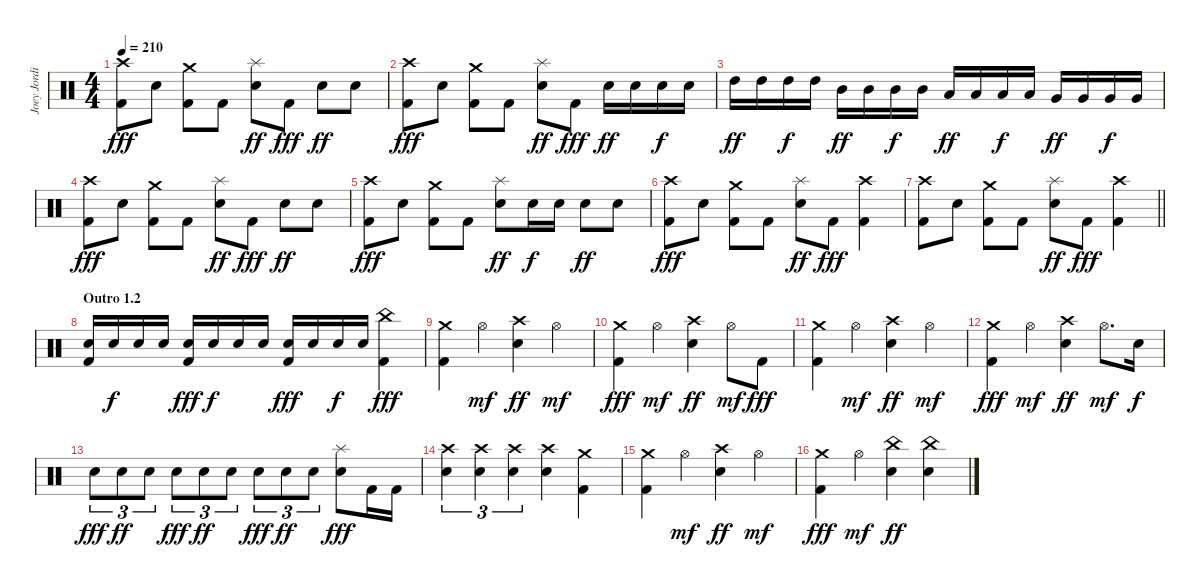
\track ("Joey Jordison" "Joey Jordi") {instrument percussion}
\staff {score}
\articulation defaults
\ts (4 4)
\tempo 210
\clef neutral
\ks c
("Crash high (hit)" "Kick (hit) 2").8{dy fff} "Electric Snare (hit)".8 ("Crash medium (hit)" "Kick (hit) 2").8 "Kick (hit) 2".8 ("Splash (hit)" "Electric Snare (hit)").8{dy ff} "Kick (hit) 2".8{dy fff} "Electric Snare (hit)".8{dy ff} "Electric Snare (hit)".8 |
("Crash high (hit)" "Kick (hit) 2").8{dy fff} "Electric Snare (hit)".8 ("Crash medium (hit)" "Kick (hit) 2").8 "Kick (hit) 2".8 ("Splash (hit)" "Electric Snare (hit)").8{dy ff} "Kick (hit) 2".8{dy fff} "Electric Snare (hit)".16{dy ff} "Electric Snare (hit)".16 "Electric Snare (hit)".16{dy f} "Electric Snare (hit)".16 |
"High Tom (hit)".16{dy ff} "High Tom (hit)".16 "High Tom (hit)".16{dy f} "High Tom (hit)".16 "Mid Tom (hit)".16{dy ff} "Mid Tom (hit)".16 "Mid Tom (hit)".16{dy f} "Mid Tom (hit)".16 "Low Tom (hit)".16{dy ff} "Low Tom (hit)".16 "Low Tom (hit)".16{dy f} "Low Tom (hit)".16 "Very Low Tom (hit)".16{dy ff} "Very Low Tom (hit)".16 "Very Low Tom (hit)".16{dy f} "Very Low Tom (hit)".16 |
("Crash high (hit)" "Kick (hit) 2").8{dy fff} "Electric Snare (hit)".8 ("Crash medium (hit)" "Kick (hit) 2").8 "Kick (hit) 2".8 ("Splash (hit)" "Electric Snare (hit)").8{dy ff} "Kick (hit) 2".8{dy fff} "Electric Snare (hit)".8{dy ff} "Electric Snare (hit)".8 |
("Crash high (hit)" "Kick (hit) 2").8{dy fff} "Electric Snare (hit)".8 ("Crash medium (hit)" "Kick (hit) 2").8 "Kick (hit) 2".8 ("Splash (hit)" "Electric Snare (hit)").8{dy ff} "Electric Snare (hit)".16{dy f} "Electric Snare (hit)".16 "Electric Snare (hit)".8{dy ff} "Electric Snare (hit)".8 |
("Crash high (hit)" "Kick (hit) 2").8{dy fff} "Electric Snare (hit)".8 ("Crash medium (hit)" "Kick (hit) 2").8 "Kick (hit) 2".8 ("Splash (hit)" "Electric Snare (hit)").8{dy ff} "Kick (hit) 2".8{dy fff} ("Crash high (hit)" "Kick (hit) 2").4 |
\barLineRight lightlight
("Crash high (hit)" "Kick (hit) 2").8 "Electric Snare (hit)".8 ("Crash medium (hit)" "Kick (hit) 2").8 "Kick (hit) 2".8 ("Splash (hit)" "Electric Snare (hit)").8{dy ff} "Kick (hit) 2".8{dy fff} ("Crash high (hit)" "Kick (hit) 2").4 |
\section ("" "Outro 1.2")
("Electric Snare (hit)" "Kick (hit) 2").16 "Electric Snare (hit)".16{dy f} "Electric Snare (hit)".16 "Electric Snare (hit)".16 ("Electric Snare (hit)" "Kick (hit) 2").16{dy fff} "Electric Snare (hit)".16{dy f} "Electric Snare (hit)".16 "Electric Snare (hit)".16 ("Electric Snare (hit)" "Kick (hit) 2").16{dy fff} "Electric Snare (hit)".16 "Electric Snare (hit)".16{dy f} "Electric Snare (hit)".16 ("China (hit)" "Kick (hit) 2").4{dy fff} |
("Crash medium (hit)" "Kick (hit) 2").4 "Hi-Hat (open)".4{dy mf} ("Crash high (hit)" "Electric Snare (hit)").4{dy ff} "Hi-Hat (open)".4{dy mf} |
("Crash medium (hit)" "Kick (hit) 2").4{dy fff} "Hi-Hat (open)".4{dy mf} ("Crash high (hit)" "Electric Snare (hit)").4{dy ff} "Hi-Hat (open)".8{dy mf} "Kick (hit) 2".8{dy fff} |
("Crash medium (hit)" "Kick (hit) 2").4 "Hi-Hat (open)".4{dy mf} ("Crash high (hit)" "Electric Snare (hit)").4{dy ff} "Hi-Hat (open)".4{dy mf} |
("Crash medium (hit)" "Kick (hit) 2").4{dy fff} "Hi-Hat (open)".4{dy mf} ("Crash high (hit)" "Electric Snare (hit)").4{dy ff} "Hi-Hat (open)".8{d dy mf} "Electric Snare (hit)".16{dy f} |
"Electric Snare (hit)".8{tu (3 2) dy fff} "Electric Snare (hit)".8{tu (3 2) dy ff} "Electric Snare (hit)".8{tu (3 2)} "Electric Snare (hit)".8{tu (3 2) dy fff} "Electric Snare (hit)".8{tu (3 2) dy ff} "Electric Snare (hit)".8{tu (3 2)} "Electric Snare (hit)".8{tu (3 2) dy fff} "Electric Snare (hit)".8{tu (3 2) dy ff} "Electric Snare (hit)".8{tu (3 2)} ("Splash (hit)" "Electric Snare (hit)").8{dy fff} "Kick (hit) 2".16 "Kick (hit) 2".16 |
("Crash high (hit)" "Electric Snare (hit)").4{tu (3 2)} ("Crash high (hit)" "Electric Snare (hit)").4{tu (3 2)} ("Crash high (hit)" "Electric Snare (hit)").4{tu (3 2)} ("Crash high (hit)" "Electric Snare (hit)").4 ("Crash medium (hit)" "Kick (hit) 2").4 |
("Crash medium (hit)" "Kick (hit) 2").4 "Hi-Hat (open)".4{dy mf} ("Crash high (hit)" "Electric Snare (hit)").4{dy ff} "Hi-Hat (open)".4{dy mf} |
("Crash medium (hit)" "Kick (hit) 2").4{dy fff} "Hi-Hat (open)".4{dy mf} ("China (hit)" "Electric Snare (hit)").4{dy ff} ("China (hit)" "Electric Snare (hit)").4
